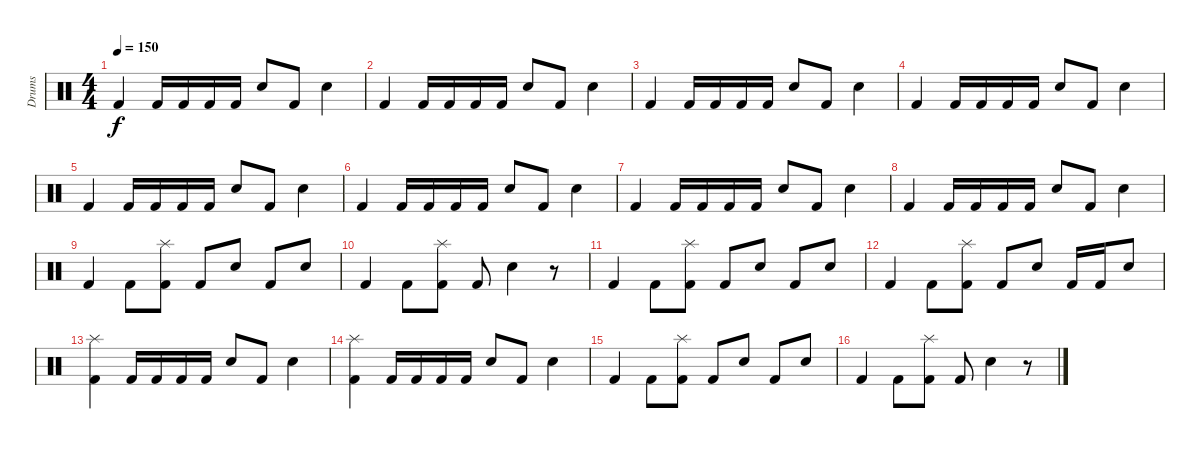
\track ("Drums" "Drums") {instrument percussion}
\staff {score}
\articulation defaults
\ts (4 4)
\tempo 150
\clef neutral
\ks c "Kick (hit) 2".4{dy f} "Kick (hit) 2".16 "Kick (hit) 2".16 "Kick (hit) 2".16 "Kick (hit) 2".16 "Snare (hit) 2".8 "Kick (hit) 2".8 "Snare (hit) 2".4
|
"Kick (hit) 2".4 "Kick (hit) 2".16 "Kick (hit) 2".16 "Kick (hit) 2".16 "Kick (hit) 2".16 "Snare (hit) 2".8 "Kick (hit) 2".8 "Snare (hit) 2".4 |
"Kick (hit) 2".4 "Kick (hit) 2".16 "Kick (hit) 2".16 "Kick (hit) 2".16 "Kick (hit) 2".16 "Snare (hit) 2".8 "Kick (hit) 2".8 "Snare (hit) 2".4 |
"Kick (hit) 2".4 "Kick (hit) 2".16 "Kick (hit) 2".16 "Kick (hit) 2".16 "Kick (hit) 2".16 "Snare (hit) 2".8 "Kick (hit) 2".8 "Snare (hit) 2".4 |
"Kick (hit) 2".4 "Kick (hit) 2".16 "Kick (hit) 2".16 "Kick (hit) 2".16 "Kick (hit) 2".16 "Snare (hit) 2".8 "Kick (hit) 2".8 "Snare (hit) 2".4 |
"Kick (hit) 2".4 "Kick (hit) 2".16 "Kick (hit) 2".16 "Kick (hit) 2".16 "Kick (hit) 2".16 "Snare (hit) 2".8 "Kick (hit) 2".8 "Snare (hit) 2".4 |
"Kick (hit) 2".4 "Kick (hit) 2".16 "Kick (hit) 2".16 "Kick (hit) 2".16 "Kick (hit) 2".16 "Snare (hit) 2".8 "Kick (hit) 2".8 "Snare (hit) 2".4 |
"Kick (hit) 2".4 "Kick (hit) 2".16 "Kick (hit) 2".16 "Kick (hit) 2".16 "Kick (hit) 2".16 "Snare (hit) 2".8 "Kick (hit) 2".8 "Snare (hit) 2".4 |
"Kick (hit) 2".4 "Kick (hit) 2".8 ("Splash (hit)" "Kick (hit) 2").8 "Kick (hit) 2".8 "Snare (hit) 2".8 "Kick (hit) 2".8 "Snare (hit) 2".8 |
"Kick (hit) 2".4 "Kick (hit) 2".8 ("Splash (hit)" "Kick (hit) 2").8 "Kick (hit) 2".8 "Snare (hit) 2".4 r.8 |
"Kick (hit) 2".4 "Kick (hit) 2".8 ("Splash (hit)" "Kick (hit) 2").8 "Kick (hit) 2".8 "Snare (hit) 2".8 "Kick (hit) 2".8 "Snare (hit) 2".8 |
"Kick (hit) 2".4 "Kick (hit) 2".8 ("Splash (hit)" "Kick (hit) 2").8 "Kick (hit) 2".8 "Snare (hit) 2".8 "Kick (hit) 2".16 "Kick (hit) 2".16 "Snare (hit) 2".8 |
("Splash (hit)" "Kick (hit) 2").4 "Kick (hit) 2".16 "Kick (hit) 2".16 "Kick (hit) 2".16 "Kick (hit) 2".16 "Snare (hit) 2".8 "Kick (hit) 2".8 "Snare (hit) 2".4 |
("Splash (hit)" "Kick (hit) 2").4 "Kick (hit) 2".16 "Kick (hit) 2".16 "Kick (hit) 2".16 "Kick (hit) 2".16 "Snare (hit) 2".8 "Kick (hit) 2".8 "Snare (hit) 2".4 |
"Kick (hit) 2".4 "Kick (hit) 2".8 ("Splash (hit)" "Kick (hit) 2").8 "Kick (hit) 2".8 "Snare (hit) 2".8 "Kick (hit) 2".8 "Snare (hit) 2".8 |
"Kick (hit) 2".4 "Kick (hit) 2".8 ("Splash (hit)" "Kick (hit) 2").8 "Kick (hit) 2".8 "Snare (hit) 2".4 r.8
